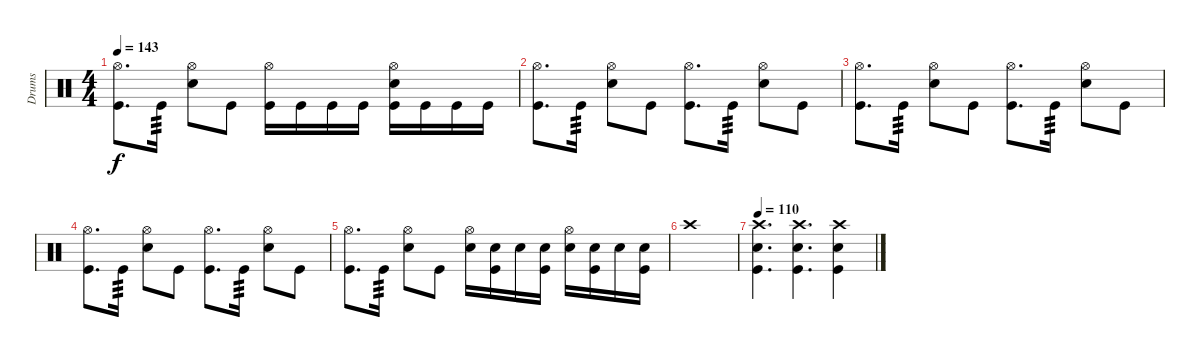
\track ("Drums" "Drums") {instrument percussion}
\staff {score}
\articulation defaults
\ts (4 4)
\tempo 143
\clef neutral
\ks c
("Hi-Hat (open)" "Kick (hit)").8{d dy f} "Kick (hit)".16{tp 3} ("Hi-Hat (open)" "Electric Snare (hit)").8 "Kick (hit)".8 ("Hi-Hat (open)" "Kick (hit)").16 "Kick (hit)".16 "Kick (hit)".16 "Kick (hit)".16 ("Hi-Hat (open)" "Electric Snare (hit)" "Kick (hit)").16 "Kick (hit)".16 "Kick (hit)".16 "Kick (hit)".16 |
("Hi-Hat (open)" "Kick (hit)").8{d} "Kick (hit)".16{tp 3} ("Hi-Hat (open)" "Electric Snare (hit)").8 "Kick (hit)".8 ("Hi-Hat (open)" "Kick (hit)").8{d} "Kick (hit)".16{tp 3} ("Hi-Hat (open)" "Electric Snare (hit)").8 "Kick (hit)".8 |
("Hi-Hat (open)" "Kick (hit)").8{d} "Kick (hit)".16{tp 3} ("Hi-Hat (open)" "Electric Snare (hit)").8 "Kick (hit)".8 ("Hi-Hat (open)" "Kick (hit)").8{d} "Kick (hit)".16{tp 3} ("Hi-Hat (open)" "Electric Snare (hit)").8 "Kick (hit)".8 |
("Hi-Hat (open)" "Kick (hit)").8{d} "Kick (hit)".16{tp 3} ("Hi-Hat (open)" "Electric Snare (hit)").8 "Kick (hit)".8 ("Hi-Hat (open)" "Kick (hit)").8{d} "Kick (hit)".16{tp 3} ("Hi-Hat (open)" "Electric Snare (hit)").8 "Kick (hit)".8 |
("Hi-Hat (open)" "Kick (hit)").8{d} "Kick (hit)".16{tp 3} ("Hi-Hat (open)" "Electric Snare (hit)").8 "Kick (hit)".8 ("Hi-Hat (open)" "Electric Snare (hit)").16 ("Electric Snare (hit)" "Kick (hit)").16 "Electric Snare (hit)".16 ("Electric Snare (hit)" "Kick (hit)").16 ("Hi-Hat (open)" "Electric Snare (hit)").16 ("Electric Snare (hit)" "Kick (hit)").16 "Electric Snare (hit)".16 ("Electric Snare (hit)" "Kick (hit)").16 |
"Crash high (hit)".1 |
\tempo 110
("Crash high (hit)" "Electric Snare (hit)" "Kick (hit)").4{d} ("Crash high (hit)" "Electric Snare (hit)" "Kick (hit)").4{d} ("Crash high (hit)" "Electric Snare (hit)" "Kick (hit)").4
